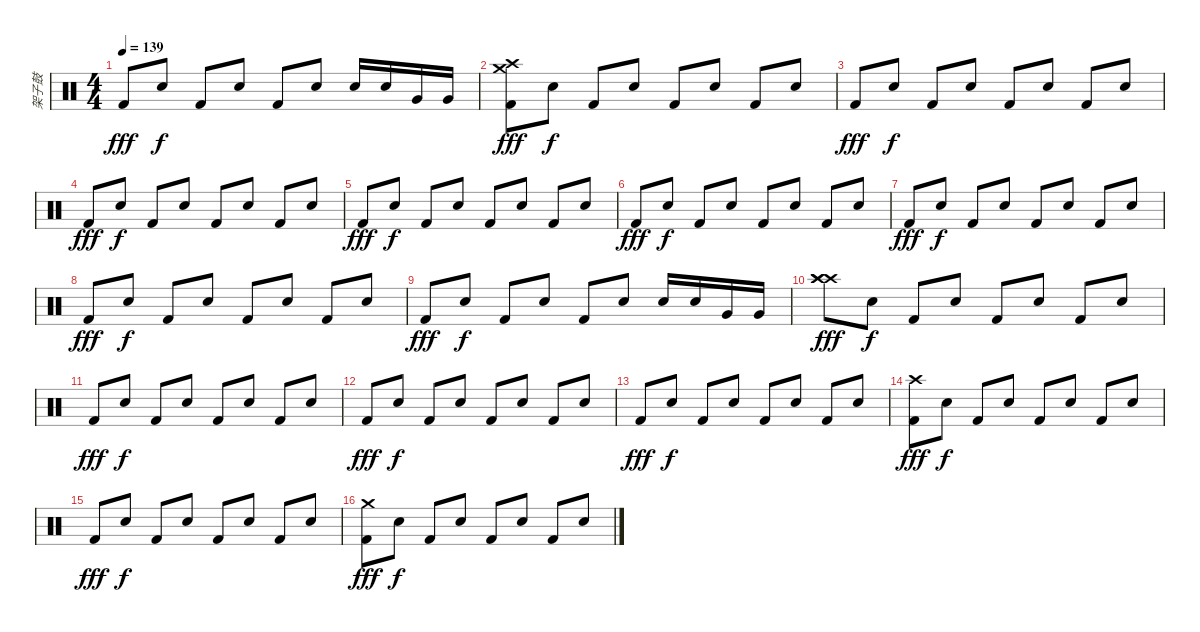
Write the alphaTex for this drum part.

\track ("架子鼓" "架子鼓") {instrument percussion}
\staff {score}
\articulation defaults
\ts (4 4)
\tempo 139
\clef neutral
\ks c "Kick (hit) 2".8{dy fff} "Electric Snare (hit)".8{dy f} "Kick (hit) 2".8 "Electric Snare (hit)".8 "Kick (hit) 2".8 "Electric Snare (hit)".8 "Electric Snare (hit)".16 "Electric Snare (hit)".16 "Very Low Tom (hit)".16 "Very Low Tom (hit)".16
|
("Kick (hit) 2" "Crash high (hit)" "Crash medium (hit)").8{dy fff} "Electric Snare (hit)".8{dy f} "Kick (hit) 2".8 "Electric Snare (hit)".8 "Kick (hit) 2".8 "Electric Snare (hit)".8 "Kick (hit) 2".8 "Electric Snare (hit)".8 |
"Kick (hit) 2".8{dy fff} "Electric Snare (hit)".8{dy f} "Kick (hit) 2".8 "Electric Snare (hit)".8 "Kick (hit) 2".8 "Electric Snare (hit)".8 "Kick (hit) 2".8 "Electric Snare (hit)".8 |
"Kick (hit) 2".8{dy fff} "Electric Snare (hit)".8{dy f} "Kick (hit) 2".8 "Electric Snare (hit)".8 "Kick (hit) 2".8 "Electric Snare (hit)".8 "Kick (hit) 2".8 "Electric Snare (hit)".8 |
"Kick (hit) 2".8{dy fff} "Electric Snare (hit)".8{dy f} "Kick (hit) 2".8 "Electric Snare (hit)".8 "Kick (hit) 2".8 "Electric Snare (hit)".8 "Kick (hit) 2".8 "Electric Snare (hit)".8 |
"Kick (hit) 2".8{dy fff} "Electric Snare (hit)".8{dy f} "Kick (hit) 2".8 "Electric Snare (hit)".8 "Kick (hit) 2".8 "Electric Snare (hit)".8 "Kick (hit) 2".8 "Electric Snare (hit)".8 |
"Kick (hit) 2".8{dy fff} "Electric Snare (hit)".8{dy f} "Kick (hit) 2".8 "Electric Snare (hit)".8 "Kick (hit) 2".8 "Electric Snare (hit)".8 "Kick (hit) 2".8 "Electric Snare (hit)".8 |
"Kick (hit) 2".8{dy fff} "Electric Snare (hit)".8{dy f} "Kick (hit) 2".8 "Electric Snare (hit)".8 "Kick (hit) 2".8 "Electric Snare (hit)".8 "Kick (hit) 2".8 "Electric Snare (hit)".8 |
"Kick (hit) 2".8{dy fff} "Electric Snare (hit)".8{dy f} "Kick (hit) 2".8 "Electric Snare (hit)".8 "Kick (hit) 2".8 "Electric Snare (hit)".8 "Electric Snare (hit)".16 "Electric Snare (hit)".16 "Very Low Tom (hit)".16 "Very Low Tom (hit)".16 |
("Crash high (hit)" "Crash high (hit)" "Crash high (hit)").8{dy fff} "Electric Snare (hit)".8{dy f} "Kick (hit) 2".8 "Electric Snare (hit)".8 "Kick (hit) 2".8 "Electric Snare (hit)".8 "Kick (hit) 2".8 "Electric Snare (hit)".8 |
"Kick (hit) 2".8{dy fff} "Electric Snare (hit)".8{dy f} "Kick (hit) 2".8 "Electric Snare (hit)".8 "Kick (hit) 2".8 "Electric Snare (hit)".8 "Kick (hit) 2".8 "Electric Snare (hit)".8 |
"Kick (hit) 2".8{dy fff} "Electric Snare (hit)".8{dy f} "Kick (hit) 2".8 "Electric Snare (hit)".8 "Kick (hit) 2".8 "Electric Snare (hit)".8 "Kick (hit) 2".8 "Electric Snare (hit)".8 |
"Kick (hit) 2".8{dy fff} "Electric Snare (hit)".8{dy f} "Kick (hit) 2".8 "Electric Snare (hit)".8 "Kick (hit) 2".8 "Electric Snare (hit)".8 "Kick (hit) 2".8 "Electric Snare (hit)".8 |
("Kick (hit) 2" "Crash high (hit)").8{dy fff} "Electric Snare (hit)".8{dy f} "Kick (hit) 2".8 "Electric Snare (hit)".8 "Kick (hit) 2".8 "Electric Snare (hit)".8 "Kick (hit) 2".8 "Electric Snare (hit)".8 |
"Kick (hit) 2".8{dy fff} "Electric Snare (hit)".8{dy f} "Kick (hit) 2".8 "Electric Snare (hit)".8 "Kick (hit) 2".8 "Electric Snare (hit)".8 "Kick (hit) 2".8 "Electric Snare (hit)".8 |
("Kick (hit) 2" "Crash medium (hit)").8{dy fff} "Electric Snare (hit)".8{dy f} "Kick (hit) 2".8 "Electric Snare (hit)".8 "Kick (hit) 2".8 "Electric Snare (hit)".8 "Kick (hit) 2".8 "Electric Snare (hit)".8
